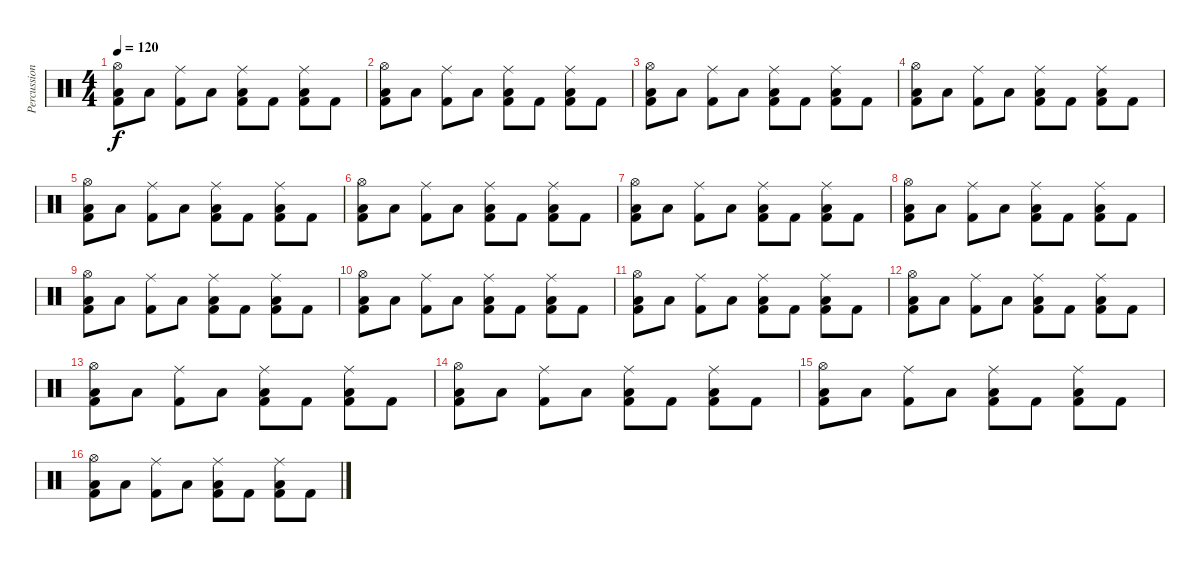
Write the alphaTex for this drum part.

\track ("Percussion" "Percussion") {instrument percussion}
\staff {score}
\articulation defaults
\ts (4 4)
\tempo 120
\clef neutral
\ks c
("Hi-Hat (open)" "Kick (hit) 2" "Low Floor Tom (hit)").8{dy f} "Low Floor Tom (hit)".8 ("Ride (middle)" "Kick (hit) 2").8 "Low Floor Tom (hit)".8 ("Ride (middle)" "Kick (hit) 2" "Low Floor Tom (hit)").8 "Kick (hit) 2".8 ("Ride (middle)" "Kick (hit) 2" "Low Floor Tom (hit)").8 "Kick (hit) 2".8 |
("Hi-Hat (open)" "Kick (hit) 2" "Low Floor Tom (hit)").8 "Low Floor Tom (hit)".8 ("Ride (middle)" "Kick (hit) 2").8 "Low Floor Tom (hit)".8 ("Ride (middle)" "Kick (hit) 2" "Low Floor Tom (hit)").8 "Kick (hit) 2".8 ("Ride (middle)" "Kick (hit) 2" "Low Floor Tom (hit)").8 "Kick (hit) 2".8 |
("Hi-Hat (open)" "Kick (hit) 2" "Low Floor Tom (hit)").8 "Low Floor Tom (hit)".8 ("Ride (middle)" "Kick (hit) 2").8 "Low Floor Tom (hit)".8 ("Ride (middle)" "Kick (hit) 2" "Low Floor Tom (hit)").8 "Kick (hit) 2".8 ("Ride (middle)" "Kick (hit) 2" "Low Floor Tom (hit)").8 "Kick (hit) 2".8 |
("Hi-Hat (open)" "Kick (hit) 2" "Low Floor Tom (hit)").8 "Low Floor Tom (hit)".8 ("Ride (middle)" "Kick (hit) 2").8 "Low Floor Tom (hit)".8 ("Ride (middle)" "Kick (hit) 2" "Low Floor Tom (hit)").8 "Kick (hit) 2".8 ("Ride (middle)" "Kick (hit) 2" "Low Floor Tom (hit)").8 "Kick (hit) 2".8 |
("Hi-Hat (open)" "Kick (hit) 2" "Low Floor Tom (hit)").8 "Low Floor Tom (hit)".8 ("Ride (middle)" "Kick (hit) 2").8 "Low Floor Tom (hit)".8 ("Ride (middle)" "Kick (hit) 2" "Low Floor Tom (hit)").8 "Kick (hit) 2".8 ("Ride (middle)" "Kick (hit) 2" "Low Floor Tom (hit)").8 "Kick (hit) 2".8 |
("Hi-Hat (open)" "Kick (hit) 2" "Low Floor Tom (hit)").8 "Low Floor Tom (hit)".8 ("Ride (middle)" "Kick (hit) 2").8 "Low Floor Tom (hit)".8 ("Ride (middle)" "Kick (hit) 2" "Low Floor Tom (hit)").8 "Kick (hit) 2".8 ("Ride (middle)" "Kick (hit) 2" "Low Floor Tom (hit)").8 "Kick (hit) 2".8 |
("Hi-Hat (open)" "Kick (hit) 2" "Low Floor Tom (hit)").8 "Low Floor Tom (hit)".8 ("Ride (middle)" "Kick (hit) 2").8 "Low Floor Tom (hit)".8 ("Ride (middle)" "Kick (hit) 2" "Low Floor Tom (hit)").8 "Kick (hit) 2".8 ("Ride (middle)" "Kick (hit) 2" "Low Floor Tom (hit)").8 "Kick (hit) 2".8 |
("Hi-Hat (open)" "Kick (hit) 2" "Low Floor Tom (hit)").8 "Low Floor Tom (hit)".8 ("Ride (middle)" "Kick (hit) 2").8 "Low Floor Tom (hit)".8 ("Ride (middle)" "Kick (hit) 2" "Low Floor Tom (hit)").8 "Kick (hit) 2".8 ("Ride (middle)" "Kick (hit) 2" "Low Floor Tom (hit)").8 "Kick (hit) 2".8 |
("Hi-Hat (open)" "Kick (hit) 2" "Low Floor Tom (hit)").8 "Low Floor Tom (hit)".8 ("Ride (middle)" "Kick (hit) 2").8 "Low Floor Tom (hit)".8 ("Ride (middle)" "Kick (hit) 2" "Low Floor Tom (hit)").8 "Kick (hit) 2".8 ("Ride (middle)" "Kick (hit) 2" "Low Floor Tom (hit)").8 "Kick (hit) 2".8 |
("Hi-Hat (open)" "Kick (hit) 2" "Low Floor Tom (hit)").8 "Low Floor Tom (hit)".8 ("Ride (middle)" "Kick (hit) 2").8 "Low Floor Tom (hit)".8 ("Ride (middle)" "Kick (hit) 2" "Low Floor Tom (hit)").8 "Kick (hit) 2".8 ("Ride (middle)" "Kick (hit) 2" "Low Floor Tom (hit)").8 "Kick (hit) 2".8 |
("Hi-Hat (open)" "Kick (hit) 2" "Low Floor Tom (hit)").8 "Low Floor Tom (hit)".8 ("Ride (middle)" "Kick (hit) 2").8 "Low Floor Tom (hit)".8 ("Ride (middle)" "Kick (hit) 2" "Low Floor Tom (hit)").8 "Kick (hit) 2".8 ("Ride (middle)" "Kick (hit) 2" "Low Floor Tom (hit)").8 "Kick (hit) 2".8 |
("Hi-Hat (open)" "Kick (hit) 2" "Low Floor Tom (hit)").8 "Low Floor Tom (hit)".8 ("Ride (middle)" "Kick (hit) 2").8 "Low Floor Tom (hit)".8 ("Ride (middle)" "Kick (hit) 2" "Low Floor Tom (hit)").8 "Kick (hit) 2".8 ("Ride (middle)" "Kick (hit) 2" "Low Floor Tom (hit)").8 "Kick (hit) 2".8 |
("Hi-Hat (open)" "Kick (hit) 2" "Low Floor Tom (hit)").8 "Low Floor Tom (hit)".8 ("Ride (middle)" "Kick (hit) 2").8 "Low Floor Tom (hit)".8 ("Ride (middle)" "Kick (hit) 2" "Low Floor Tom (hit)").8 "Kick (hit) 2".8 ("Ride (middle)" "Kick (hit) 2" "Low Floor Tom (hit)").8 "Kick (hit) 2".8 |
("Hi-Hat (open)" "Kick (hit) 2" "Low Floor Tom (hit)").8 "Low Floor Tom (hit)".8 ("Ride (middle)" "Kick (hit) 2").8 "Low Floor Tom (hit)".8 ("Ride (middle)" "Kick (hit) 2" "Low Floor Tom (hit)").8 "Kick (hit) 2".8 ("Ride (middle)" "Kick (hit) 2" "Low Floor Tom (hit)").8 "Kick (hit) 2".8 |
("Hi-Hat (open)" "Kick (hit) 2" "Low Floor Tom (hit)").8 "Low Floor Tom (hit)".8 ("Ride (middle)" "Kick (hit) 2").8 "Low Floor Tom (hit)".8 ("Ride (middle)" "Kick (hit) 2" "Low Floor Tom (hit)").8 "Kick (hit) 2".8 ("Ride (middle)" "Kick (hit) 2" "Low Floor Tom (hit)").8 "Kick (hit) 2".8 |
("Hi-Hat (open)" "Kick (hit) 2" "Low Floor Tom (hit)").8 "Low Floor Tom (hit)".8 ("Ride (middle)" "Kick (hit) 2").8 "Low Floor Tom (hit)".8 ("Ride (middle)" "Kick (hit) 2" "Low Floor Tom (hit)").8 "Kick (hit) 2".8 ("Ride (middle)" "Kick (hit) 2" "Low Floor Tom (hit)").8 "Kick (hit) 2".8
